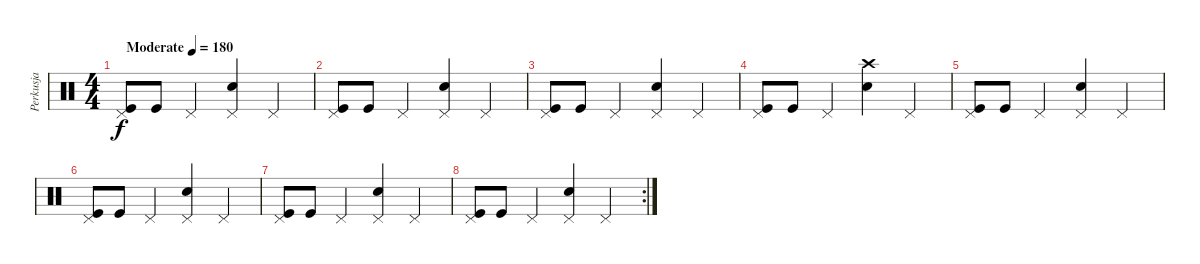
\track ("Perkusja" "Perkusja") {instrument percussion}
\staff {score}
\articulation defaults
\ts (4 4)
\tempo (180 "Moderate")
\clef neutral
\ks c
("Pedal Hi-Hat (hit)" "Kick (hit)").8{dy f} "Kick (hit)".8 "Pedal Hi-Hat (hit)".4 ("Pedal Hi-Hat (hit)" "Electric Snare (hit)").4 "Pedal Hi-Hat (hit)".4 |
("Pedal Hi-Hat (hit)" "Kick (hit)").8 "Kick (hit)".8 "Pedal Hi-Hat (hit)".4 ("Pedal Hi-Hat (hit)" "Electric Snare (hit)").4 "Pedal Hi-Hat (hit)".4 |
("Pedal Hi-Hat (hit)" "Kick (hit)").8 "Kick (hit)".8 "Pedal Hi-Hat (hit)".4 ("Pedal Hi-Hat (hit)" "Electric Snare (hit)").4 "Pedal Hi-Hat (hit)".4 |
("Pedal Hi-Hat (hit)" "Kick (hit)").8 "Kick (hit)".8 "Pedal Hi-Hat (hit)".4 ("Crash high (hit)" "Electric Snare (hit)").4 "Pedal Hi-Hat (hit)".4 |
("Pedal Hi-Hat (hit)" "Kick (hit)").8 "Kick (hit)".8 "Pedal Hi-Hat (hit)".4 ("Pedal Hi-Hat (hit)" "Electric Snare (hit)").4 "Pedal Hi-Hat (hit)".4 |
("Pedal Hi-Hat (hit)" "Kick (hit)").8 "Kick (hit)".8 "Pedal Hi-Hat (hit)".4 ("Pedal Hi-Hat (hit)" "Electric Snare (hit)").4 "Pedal Hi-Hat (hit)".4 |
("Pedal Hi-Hat (hit)" "Kick (hit)").8 "Kick (hit)".8 "Pedal Hi-Hat (hit)".4 ("Pedal Hi-Hat (hit)" "Electric Snare (hit)").4 "Pedal Hi-Hat (hit)".4 |
\rc 2
("Pedal Hi-Hat (hit)" "Kick (hit)").8 "Kick (hit)".8 "Pedal Hi-Hat (hit)".4 ("Pedal Hi-Hat (hit)" "Electric Snare (hit)").4 "Pedal Hi-Hat (hit)".4
